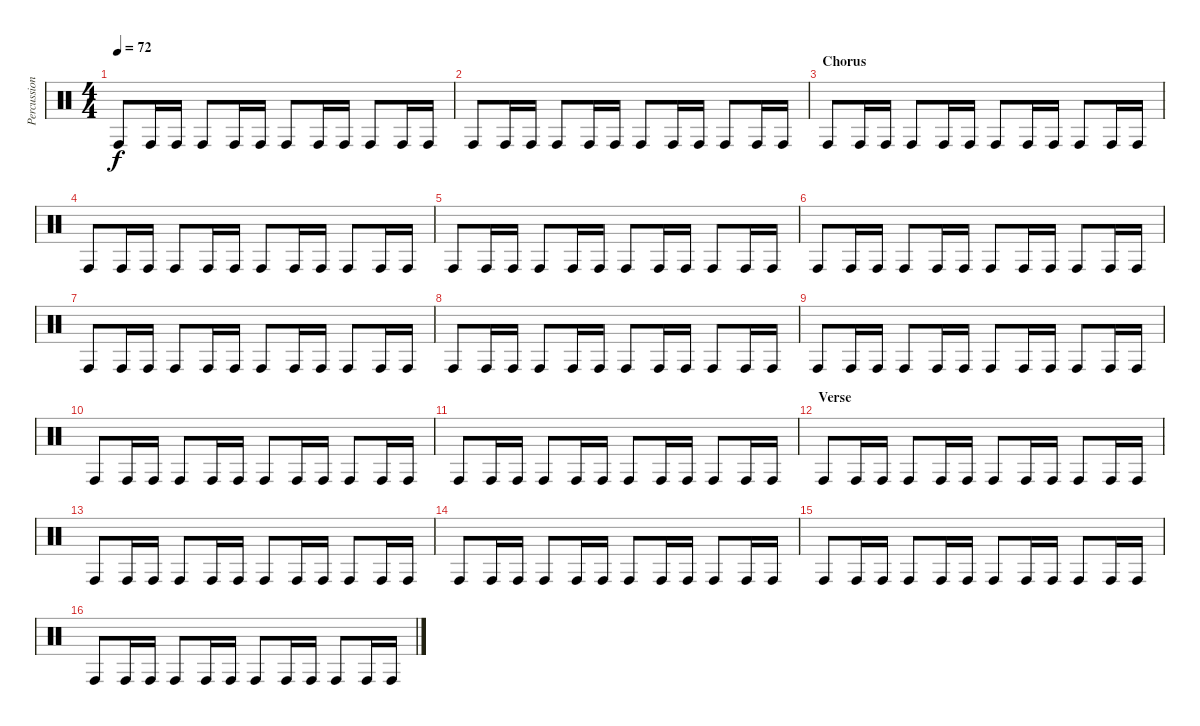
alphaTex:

\track ("Percussions" "Percussion") {instrument percussion}
\staff {score}
\articulation defaults
\ts (4 4)
\tempo 72
\clef neutral
\ks c "Conga high (hit)".8{dy f} "Conga high (hit)".16 "Conga high (hit)".16 "Conga high (hit)".8 "Conga high (hit)".16 "Conga high (hit)".16 "Conga high (hit)".8 "Conga high (hit)".16 "Conga high (hit)".16 "Conga high (hit)".8 "Conga high (hit)".16 "Conga high (hit)".16
|
"Conga high (hit)".8 "Conga high (hit)".16 "Conga high (hit)".16 "Conga high (hit)".8 "Conga high (hit)".16 "Conga high (hit)".16 "Conga high (hit)".8 "Conga high (hit)".16 "Conga high (hit)".16 "Conga high (hit)".8 "Conga high (hit)".16 "Conga high (hit)".16 |
\section ("" "Chorus")
"Conga high (hit)".8 "Conga high (hit)".16 "Conga high (hit)".16 "Conga high (hit)".8 "Conga high (hit)".16 "Conga high (hit)".16 "Conga high (hit)".8 "Conga high (hit)".16 "Conga high (hit)".16 "Conga high (hit)".8 "Conga high (hit)".16 "Conga high (hit)".16 |
"Conga high (hit)".8 "Conga high (hit)".16 "Conga high (hit)".16 "Conga high (hit)".8 "Conga high (hit)".16 "Conga high (hit)".16 "Conga high (hit)".8 "Conga high (hit)".16 "Conga high (hit)".16 "Conga high (hit)".8 "Conga high (hit)".16 "Conga high (hit)".16 |
"Conga high (hit)".8 "Conga high (hit)".16 "Conga high (hit)".16 "Conga high (hit)".8 "Conga high (hit)".16 "Conga high (hit)".16 "Conga high (hit)".8 "Conga high (hit)".16 "Conga high (hit)".16 "Conga high (hit)".8 "Conga high (hit)".16 "Conga high (hit)".16 |
"Conga high (hit)".8 "Conga high (hit)".16 "Conga high (hit)".16 "Conga high (hit)".8 "Conga high (hit)".16 "Conga high (hit)".16 "Conga high (hit)".8 "Conga high (hit)".16 "Conga high (hit)".16 "Conga high (hit)".8 "Conga high (hit)".16 "Conga high (hit)".16 |
"Conga high (hit)".8 "Conga high (hit)".16 "Conga high (hit)".16 "Conga high (hit)".8 "Conga high (hit)".16 "Conga high (hit)".16 "Conga high (hit)".8 "Conga high (hit)".16 "Conga high (hit)".16 "Conga high (hit)".8 "Conga high (hit)".16 "Conga high (hit)".16 |
"Conga high (hit)".8 "Conga high (hit)".16 "Conga high (hit)".16 "Conga high (hit)".8 "Conga high (hit)".16 "Conga high (hit)".16 "Conga high (hit)".8 "Conga high (hit)".16 "Conga high (hit)".16 "Conga high (hit)".8 "Conga high (hit)".16 "Conga high (hit)".16 |
"Conga high (hit)".8 "Conga high (hit)".16 "Conga high (hit)".16 "Conga high (hit)".8 "Conga high (hit)".16 "Conga high (hit)".16 "Conga high (hit)".8 "Conga high (hit)".16 "Conga high (hit)".16 "Conga high (hit)".8 "Conga high (hit)".16 "Conga high (hit)".16 |
"Conga high (hit)".8 "Conga high (hit)".16 "Conga high (hit)".16 "Conga high (hit)".8 "Conga high (hit)".16 "Conga high (hit)".16 "Conga high (hit)".8 "Conga high (hit)".16 "Conga high (hit)".16 "Conga high (hit)".8 "Conga high (hit)".16 "Conga high (hit)".16 |
"Conga high (hit)".8 "Conga high (hit)".16 "Conga high (hit)".16 "Conga high (hit)".8 "Conga high (hit)".16 "Conga high (hit)".16 "Conga high (hit)".8 "Conga high (hit)".16 "Conga high (hit)".16 "Conga high (hit)".8 "Conga high (hit)".16 "Conga high (hit)".16 |
\section ("" "Verse")
"Conga high (hit)".8 "Conga high (hit)".16 "Conga high (hit)".16 "Conga high (hit)".8 "Conga high (hit)".16 "Conga high (hit)".16 "Conga high (hit)".8 "Conga high (hit)".16 "Conga high (hit)".16 "Conga high (hit)".8 "Conga high (hit)".16 "Conga high (hit)".16 |
"Conga high (hit)".8 "Conga high (hit)".16 "Conga high (hit)".16 "Conga high (hit)".8 "Conga high (hit)".16 "Conga high (hit)".16 "Conga high (hit)".8 "Conga high (hit)".16 "Conga high (hit)".16 "Conga high (hit)".8 "Conga high (hit)".16 "Conga high (hit)".16 |
"Conga high (hit)".8 "Conga high (hit)".16 "Conga high (hit)".16 "Conga high (hit)".8 "Conga high (hit)".16 "Conga high (hit)".16 "Conga high (hit)".8 "Conga high (hit)".16 "Conga high (hit)".16 "Conga high (hit)".8 "Conga high (hit)".16 "Conga high (hit)".16 |
"Conga high (hit)".8 "Conga high (hit)".16 "Conga high (hit)".16 "Conga high (hit)".8 "Conga high (hit)".16 "Conga high (hit)".16 "Conga high (hit)".8 "Conga high (hit)".16 "Conga high (hit)".16 "Conga high (hit)".8 "Conga high (hit)".16 "Conga high (hit)".16 |
"Conga high (hit)".8 "Conga high (hit)".16 "Conga high (hit)".16 "Conga high (hit)".8 "Conga high (hit)".16 "Conga high (hit)".16 "Conga high (hit)".8 "Conga high (hit)".16 "Conga high (hit)".16 "Conga high (hit)".8 "Conga high (hit)".16 "Conga high (hit)".16
